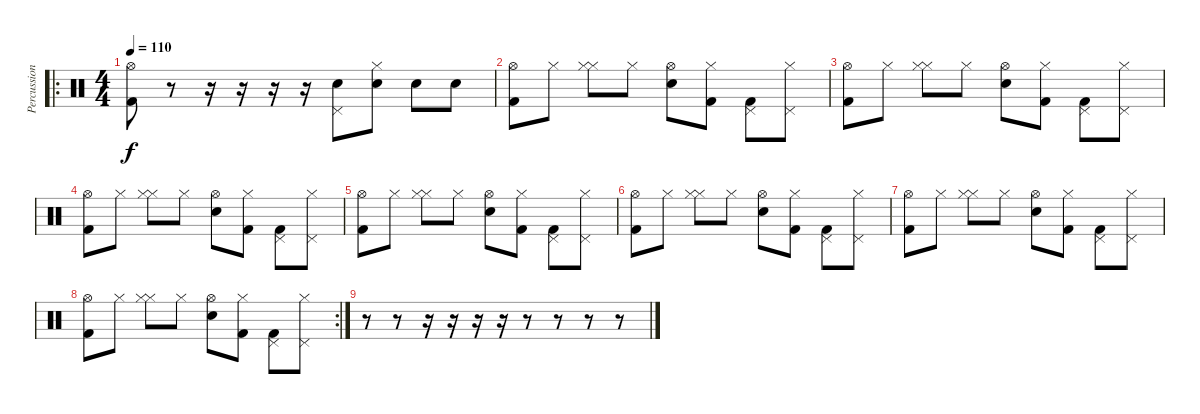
\track ("Percussion" "Percussion") {instrument percussion}
\staff {score}
\articulation defaults
\ro
\ts (4 4)
\tempo 110
\clef neutral
\ks c
("Kick (hit) 2" "Hi-Hat (open)").8{dy f} r.8 r.16 r.16 r.16 r.16 ("Snare (hit) 2" "Pedal Hi-Hat (hit)").8 ("Snare (hit) 2" "Hi-Hat (closed)").8 "Snare (hit) 2".8 "Snare (hit) 2".8 |
("Kick (hit) 2" "Hi-Hat (open)").8 "Hi-Hat (closed)".8 ("Hi-Hat (closed)" "Hi-Hat (closed)").8 "Hi-Hat (closed)".8 ("Snare (hit) 2" "Hi-Hat (open)").8 ("Kick (hit) 2" "Hi-Hat (closed)").8 ("Kick (hit) 2" "Pedal Hi-Hat (hit)").8 ("Pedal Hi-Hat (hit)" "Hi-Hat (closed)").8 |
("Kick (hit) 2" "Hi-Hat (open)").8 "Hi-Hat (closed)".8 ("Hi-Hat (closed)" "Hi-Hat (closed)").8 "Hi-Hat (closed)".8 ("Snare (hit) 2" "Hi-Hat (open)").8 ("Kick (hit) 2" "Hi-Hat (closed)").8 ("Kick (hit) 2" "Pedal Hi-Hat (hit)").8 ("Pedal Hi-Hat (hit)" "Hi-Hat (closed)").8 |
("Kick (hit) 2" "Hi-Hat (open)").8 "Hi-Hat (closed)".8 ("Hi-Hat (closed)" "Hi-Hat (closed)").8 "Hi-Hat (closed)".8 ("Snare (hit) 2" "Hi-Hat (open)").8 ("Kick (hit) 2" "Hi-Hat (closed)").8 ("Kick (hit) 2" "Pedal Hi-Hat (hit)").8 ("Pedal Hi-Hat (hit)" "Hi-Hat (closed)").8 |
("Kick (hit) 2" "Hi-Hat (open)").8 "Hi-Hat (closed)".8 ("Hi-Hat (closed)" "Hi-Hat (closed)").8 "Hi-Hat (closed)".8 ("Snare (hit) 2" "Hi-Hat (open)").8 ("Kick (hit) 2" "Hi-Hat (closed)").8 ("Kick (hit) 2" "Pedal Hi-Hat (hit)").8 ("Pedal Hi-Hat (hit)" "Hi-Hat (closed)").8 |
("Kick (hit) 2" "Hi-Hat (open)").8 "Hi-Hat (closed)".8 ("Hi-Hat (closed)" "Hi-Hat (closed)").8 "Hi-Hat (closed)".8 ("Snare (hit) 2" "Hi-Hat (open)").8 ("Kick (hit) 2" "Hi-Hat (closed)").8 ("Kick (hit) 2" "Pedal Hi-Hat (hit)").8 ("Pedal Hi-Hat (hit)" "Hi-Hat (closed)").8 |
("Kick (hit) 2" "Hi-Hat (open)").8 "Hi-Hat (closed)".8 ("Hi-Hat (closed)" "Hi-Hat (closed)").8 "Hi-Hat (closed)".8 ("Snare (hit) 2" "Hi-Hat (open)").8 ("Kick (hit) 2" "Hi-Hat (closed)").8 ("Kick (hit) 2" "Pedal Hi-Hat (hit)").8 ("Pedal Hi-Hat (hit)" "Hi-Hat (closed)").8 |
\rc 2
("Kick (hit) 2" "Hi-Hat (open)").8 "Hi-Hat (closed)".8 ("Hi-Hat (closed)" "Hi-Hat (closed)").8 "Hi-Hat (closed)".8 ("Snare (hit) 2" "Hi-Hat (open)").8 ("Kick (hit) 2" "Hi-Hat (closed)").8 ("Kick (hit) 2" "Pedal Hi-Hat (hit)").8 ("Pedal Hi-Hat (hit)" "Hi-Hat (closed)").8 |
r.8 r.8 r.16 r.16 r.16 r.16 r.8 r.8 r.8 r.8
